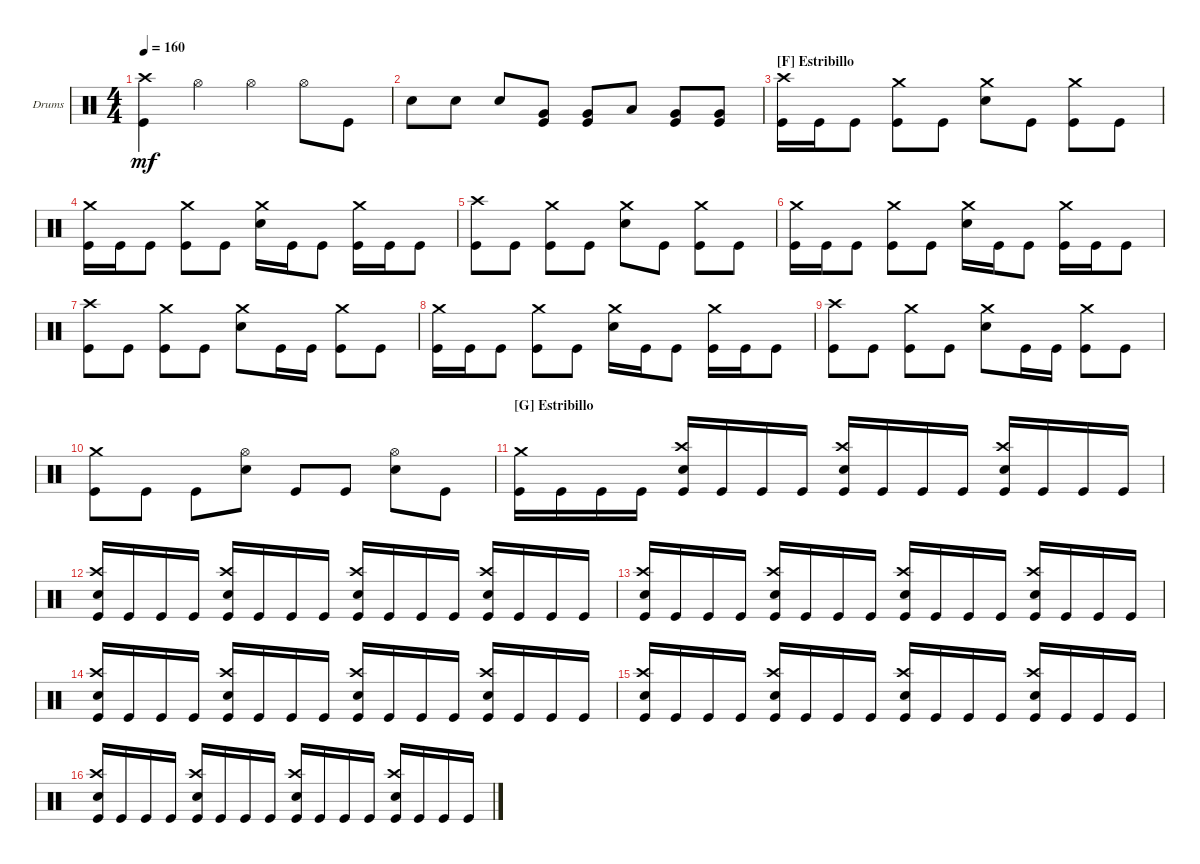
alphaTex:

\bracketExtendMode groupsimilarinstruments
\firstSystemTrackNameOrientation horizontal
\otherSystemsTrackNameOrientation horizontal
\track ("Nick Augusto" "Drums") {instrument percussion}
\staff {score}
\articulation defaults
\ts (4 4)
\tempo 160
\clef neutral
\ks c
("Kick (hit)" "Crash high (hit)").4{dy mf} "Hi-Hat (open)".4 "Hi-Hat (open)".4 "Hi-Hat (open)".8 "Kick (hit)".8 |
"Snare (hit) 2".8 "Snare (hit) 2".8 "Snare (hit) 2".8 ("Very Low Tom (hit)" "Kick (hit)").8 ("Kick (hit)" "Very Low Tom (hit)").8 "Low Tom (hit)".8 ("Very Low Tom (hit)" "Kick (hit)").8 ("Very Low Tom (hit)" "Kick (hit)").8 |
\section ("F" "Estribillo")
("Kick (hit)" "Crash high (hit)").16 "Kick (hit)".16 "Kick (hit)".8 ("Crash medium (hit)" "Kick (hit)").8 "Kick (hit)".8 ("Crash medium (hit)" "Snare (hit) 2").8 "Kick (hit)".8 ("Crash medium (hit)" "Kick (hit)").8 "Kick (hit)".8 |
("Kick (hit)" "Crash medium (hit)").16 "Kick (hit)".16 "Kick (hit)".8 ("Crash medium (hit)" "Kick (hit)").8 "Kick (hit)".8 ("Crash medium (hit)" "Snare (hit) 2").16 "Kick (hit)".16 "Kick (hit)".8 ("Crash medium (hit)" "Kick (hit)").16 "Kick (hit)".16 "Kick (hit)".8 |
("Kick (hit)" "Crash high (hit)").8 "Kick (hit)".8 ("Crash medium (hit)" "Kick (hit)").8 "Kick (hit)".8 ("Crash medium (hit)" "Snare (hit) 2").8 "Kick (hit)".8 ("Crash medium (hit)" "Kick (hit)").8 "Kick (hit)".8 |
("Kick (hit)" "Crash medium (hit)").16 "Kick (hit)".16 "Kick (hit)".8 ("Crash medium (hit)" "Kick (hit)").8 "Kick (hit)".8 ("Crash medium (hit)" "Snare (hit) 2").16 "Kick (hit)".16 "Kick (hit)".8 ("Crash medium (hit)" "Kick (hit)").16 "Kick (hit)".16 "Kick (hit)".8 |
("Kick (hit)" "Crash high (hit)").8 "Kick (hit)".8 ("Crash medium (hit)" "Kick (hit)").8 "Kick (hit)".8 ("Crash medium (hit)" "Snare (hit) 2").8 "Kick (hit)".16 "Kick (hit)".16 ("Crash medium (hit)" "Kick (hit)").8 "Kick (hit)".8 |
("Kick (hit)" "Crash medium (hit)").16 "Kick (hit)".16 "Kick (hit)".8 ("Crash medium (hit)" "Kick (hit)").8 "Kick (hit)".8 ("Crash medium (hit)" "Snare (hit) 2").16 "Kick (hit)".16 "Kick (hit)".8 ("Crash medium (hit)" "Kick (hit)").16 "Kick (hit)".16 "Kick (hit)".8 |
("Kick (hit)" "Crash high (hit)").8 "Kick (hit)".8 ("Crash medium (hit)" "Kick (hit)").8 "Kick (hit)".8 ("Crash medium (hit)" "Snare (hit) 2").8 "Kick (hit)".16 "Kick (hit)".16 ("Crash medium (hit)" "Kick (hit)").8 "Kick (hit)".8 |
("Kick (hit)" "Crash medium (hit)").8 "Kick (hit)".8 "Kick (hit)".8 ("Snare (hit) 2" "Hi-Hat (open)").8 "Kick (hit)".8 "Kick (hit)".8 ("Snare (hit) 2" "Hi-Hat (open)").8 "Kick (hit)".8 |
\section ("G" "Estribillo")
("Kick (hit)" "Crash medium (hit)").16 "Kick (hit)".16 "Kick (hit)".16 "Kick (hit)".16 ("Kick (hit)" "Crash high (hit)" "Snare (hit) 2").16 "Kick (hit)".16 "Kick (hit)".16 "Kick (hit)".16 ("Kick (hit)" "Crash high (hit)" "Snare (hit) 2").16 "Kick (hit)".16 "Kick (hit)".16 "Kick (hit)".16 ("Kick (hit)" "Crash high (hit)" "Snare (hit) 2").16 "Kick (hit)".16 "Kick (hit)".16 "Kick (hit)".16 |
("Kick (hit)" "Crash high (hit)" "Snare (hit) 2").16 "Kick (hit)".16 "Kick (hit)".16 "Kick (hit)".16 ("Kick (hit)" "Crash high (hit)" "Snare (hit) 2").16 "Kick (hit)".16 "Kick (hit)".16 "Kick (hit)".16 ("Kick (hit)" "Crash high (hit)" "Snare (hit) 2").16 "Kick (hit)".16 "Kick (hit)".16 "Kick (hit)".16 ("Kick (hit)" "Crash high (hit)" "Snare (hit) 2").16 "Kick (hit)".16 "Kick (hit)".16 "Kick (hit)".16 |
("Kick (hit)" "Crash high (hit)" "Snare (hit) 2").16 "Kick (hit)".16 "Kick (hit)".16 "Kick (hit)".16 ("Kick (hit)" "Crash high (hit)" "Snare (hit) 2").16 "Kick (hit)".16 "Kick (hit)".16 "Kick (hit)".16 ("Kick (hit)" "Crash high (hit)" "Snare (hit) 2").16 "Kick (hit)".16 "Kick (hit)".16 "Kick (hit)".16 ("Kick (hit)" "Crash high (hit)" "Snare (hit) 2").16 "Kick (hit)".16 "Kick (hit)".16 "Kick (hit)".16 |
("Kick (hit)" "Crash high (hit)" "Snare (hit) 2").16 "Kick (hit)".16 "Kick (hit)".16 "Kick (hit)".16 ("Kick (hit)" "Crash high (hit)" "Snare (hit) 2").16 "Kick (hit)".16 "Kick (hit)".16 "Kick (hit)".16 ("Kick (hit)" "Crash high (hit)" "Snare (hit) 2").16 "Kick (hit)".16 "Kick (hit)".16 "Kick (hit)".16 ("Kick (hit)" "Crash high (hit)" "Snare (hit) 2").16 "Kick (hit)".16 "Kick (hit)".16 "Kick (hit)".16 |
("Kick (hit)" "Crash high (hit)" "Snare (hit) 2").16 "Kick (hit)".16 "Kick (hit)".16 "Kick (hit)".16 ("Kick (hit)" "Crash high (hit)" "Snare (hit) 2").16 "Kick (hit)".16 "Kick (hit)".16 "Kick (hit)".16 ("Kick (hit)" "Crash high (hit)" "Snare (hit) 2").16 "Kick (hit)".16 "Kick (hit)".16 "Kick (hit)".16 ("Kick (hit)" "Crash high (hit)" "Snare (hit) 2").16 "Kick (hit)".16 "Kick (hit)".16 "Kick (hit)".16 |
("Kick (hit)" "Crash high (hit)" "Snare (hit) 2").16 "Kick (hit)".16 "Kick (hit)".16 "Kick (hit)".16 ("Kick (hit)" "Crash high (hit)" "Snare (hit) 2").16 "Kick (hit)".16 "Kick (hit)".16 "Kick (hit)".16 ("Kick (hit)" "Crash high (hit)" "Snare (hit) 2").16 "Kick (hit)".16 "Kick (hit)".16 "Kick (hit)".16 ("Kick (hit)" "Crash high (hit)" "Snare (hit) 2").16 "Kick (hit)".16 "Kick (hit)".16 "Kick (hit)".16
